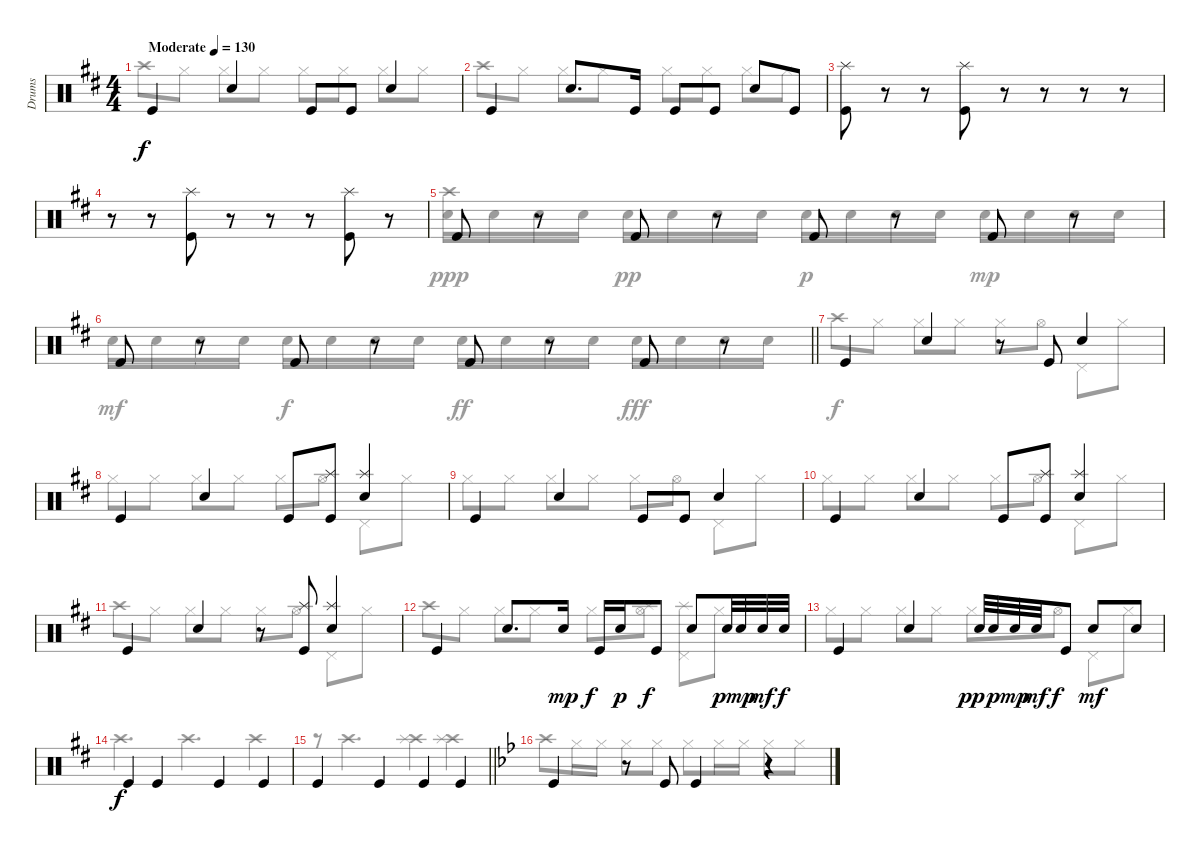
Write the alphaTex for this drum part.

\track ("Drums" "Drums") {instrument percussion}
\staff {score}
\articulation defaults
\voice
\ts (4 4)
\tempo (130 "Moderate")
\clef neutral
\ks d "Kick (hit)".4{dy f} "Snare (hit) 2".4 "Kick (hit)".8 "Kick (hit)".8 "Snare (hit) 2".4
|
"Kick (hit)".4 "Snare (hit) 2".8{d} "Kick (hit)".16 "Kick (hit)".8 "Kick (hit)".8 "Snare (hit) 2".8 "Kick (hit)".8 |
("Splash (hit)" "Kick (hit)").8 r.8 r.8 ("Splash (hit)" "Kick (hit)").8 r.8 r.8 r.8 r.8 |
r.8 r.8 ("Splash (hit)" "Kick (hit)").8 r.8 r.8 r.8 ("Splash (hit)" "Kick (hit)").8 r.8 |
"Kick (hit)".8 r.8 "Kick (hit)".8 r.8 "Kick (hit)".8 r.8 "Kick (hit)".8 r.8 |
\barLineRight lightlight "Kick (hit)".8
r.8 "Kick (hit)".8 r.8 "Kick (hit)".8 r.8 "Kick (hit)".8 r.8 |
"Kick (hit)".4 "Snare (hit) 2".4 r.8 "Kick (hit)".8 "Snare (hit) 2".4 |
"Kick (hit)".4 "Snare (hit) 2".4 "Kick (hit)".8 ("Splash (hit)" "Kick (hit)").8 ("Splash (hit)" "Snare (hit) 2").4 |
"Kick (hit)".4 "Snare (hit) 2".4 "Kick (hit)".8 "Kick (hit)".8 "Snare (hit) 2".4 |
"Kick (hit)".4 "Snare (hit) 2".4 "Kick (hit)".8 ("Splash (hit)" "Kick (hit)").8 ("Splash (hit)" "Snare (hit) 2").4 |
"Kick (hit)".4 "Snare (hit) 2".4 r.8 ("Splash (hit)" "Kick (hit)").8 ("Splash (hit)" "Snare (hit) 2").4 |
"Kick (hit)".4 "Snare (hit) 2".8{d} "Snare (hit) 2".16{dy mp} "Kick (hit)".16{dy f} "Snare (hit) 2".16{dy p} "Kick (hit)".8{dy f} "Snare (hit) 2".8 "Snare (hit) 2".32{dy p} "Snare (hit) 2".32{dy mp} "Snare (hit) 2".32{dy mf} "Snare (hit) 2".32{dy f} |
"Kick (hit)".4 "Snare (hit) 2".4 "Snare (hit) 2".32{dy pp} "Snare (hit) 2".32{dy p} "Snare (hit) 2".32{dy mp} "Snare (hit) 2".32{dy mf} "Kick (hit)".8{dy f} "Snare (hit) 2".8{dy mf} "Snare (hit) 2".8 |
"Kick (hit)".4{dy f} "Kick (hit)".4 "Kick (hit)".4 "Kick (hit)".4 |
\barLineRight lightlight "Kick (hit)".4 "Kick (hit)".4 "Kick (hit)".4 "Kick (hit)".4
|
\ks gminor "Kick (hit)".4
r.8 "Kick (hit)".8 "Kick (hit)".4 r.4
\voice
\clef neutral
\ottava regular
\simile none
\ks d "Crash high (hit)".8{dy f} "Hi-Hat (closed)".8 "Hi-Hat (closed)".8 "Hi-Hat (closed)".8 "Hi-Hat (closed)".8 "Hi-Hat (closed)".8 "Hi-Hat (closed)".8 "Hi-Hat (closed)".8
|
"Crash high (hit)".8 "Hi-Hat (closed)".8 "Hi-Hat (closed)".8 "Hi-Hat (closed)".8 "Hi-Hat (closed)".8 "Hi-Hat (closed)".8 "Hi-Hat (closed)".8 "Hi-Hat (closed)".8 |
|
|
("Snare (hit) 2" "Crash high (hit)").16{dy ppp} "Snare (hit) 2".16 "Snare (hit) 2".16 "Snare (hit) 2".16 "Snare (hit) 2".16{dy pp} "Snare (hit) 2".16 "Snare (hit) 2".16 "Snare (hit) 2".16 "Snare (hit) 2".16{dy p} "Snare (hit) 2".16 "Snare (hit) 2".16 "Snare (hit) 2".16 "Snare (hit) 2".16{dy mp} "Snare (hit) 2".16 "Snare (hit) 2".16 "Snare (hit) 2".16 |
\barLineRight lightlight "Snare (hit) 2".16{dy mf} "Snare (hit) 2".16 "Snare (hit) 2".16 "Snare (hit) 2".16 "Snare (hit) 2".16{dy f} "Snare (hit) 2".16 "Snare (hit) 2".16 "Snare (hit) 2".16 "Snare (hit) 2".16{dy ff} "Snare (hit) 2".16 "Snare (hit) 2".16 "Snare (hit) 2".16 "Snare (hit) 2".16{dy fff} "Snare (hit) 2".16 "Snare (hit) 2".16 "Snare (hit) 2".16
|
"Crash high (hit)".8{dy f} "Hi-Hat (closed)".8 "Hi-Hat (closed)".8 "Hi-Hat (closed)".8 "Hi-Hat (closed)".8 "Hi-Hat (open)".8 "Pedal Hi-Hat (hit)".8 "Hi-Hat (closed)".8 |
"Hi-Hat (closed)".8 "Hi-Hat (closed)".8 "Hi-Hat (closed)".8 "Hi-Hat (closed)".8 "Hi-Hat (closed)".8 "Hi-Hat (open)".8 "Pedal Hi-Hat (hit)".8 "Hi-Hat (closed)".8 |
"Hi-Hat (closed)".8 "Hi-Hat (closed)".8 "Hi-Hat (closed)".8 "Hi-Hat (closed)".8 "Hi-Hat (closed)".8 "Hi-Hat (open)".8 "Pedal Hi-Hat (hit)".8 "Hi-Hat (closed)".8 |
"Hi-Hat (closed)".8 "Hi-Hat (closed)".8 "Hi-Hat (closed)".8 "Hi-Hat (closed)".8 "Hi-Hat (closed)".8 "Hi-Hat (open)".8 "Pedal Hi-Hat (hit)".8 "Hi-Hat (closed)".8 |
"Crash high (hit)".8 "Hi-Hat (closed)".8 "Hi-Hat (closed)".8 "Hi-Hat (closed)".8 "Hi-Hat (closed)".8 "Hi-Hat (open)".8 "Pedal Hi-Hat (hit)".8 "Hi-Hat (closed)".8 |
"Crash high (hit)".8 "Hi-Hat (closed)".8 "Hi-Hat (closed)".8 "Hi-Hat (closed)".8 "Hi-Hat (closed)".8 ("Hi-Hat (open)" "Splash (hit)").8 ("Pedal Hi-Hat (hit)" "Splash (hit)").8 "Hi-Hat (closed)".8 |
"Hi-Hat (closed)".8 "Hi-Hat (closed)".8 "Hi-Hat (closed)".8 "Hi-Hat (closed)".8 "Hi-Hat (closed)".8 "Hi-Hat (open)".8 "Pedal Hi-Hat (hit)".8 "Hi-Hat (closed)".8 |
"Crash high (hit)".4{d} "Crash high (hit)".4{d} "Crash high (hit)".4 |
\barLineRight lightlight
r.8 "Crash high (hit)".4{d} ("Crash high (hit)" "Splash (hit)").4 ("Crash high (hit)" "Splash (hit)").4 |
\ks gminor "Crash high (hit)".8 "Hi-Hat (closed)".16 "Hi-Hat (closed)".16 "Hi-Hat (closed)".8 "Hi-Hat (closed)".8 "Hi-Hat (closed)".8 "Hi-Hat (closed)".16 "Hi-Hat (closed)".16 "Hi-Hat (closed)".8 "Hi-Hat (closed)".8
